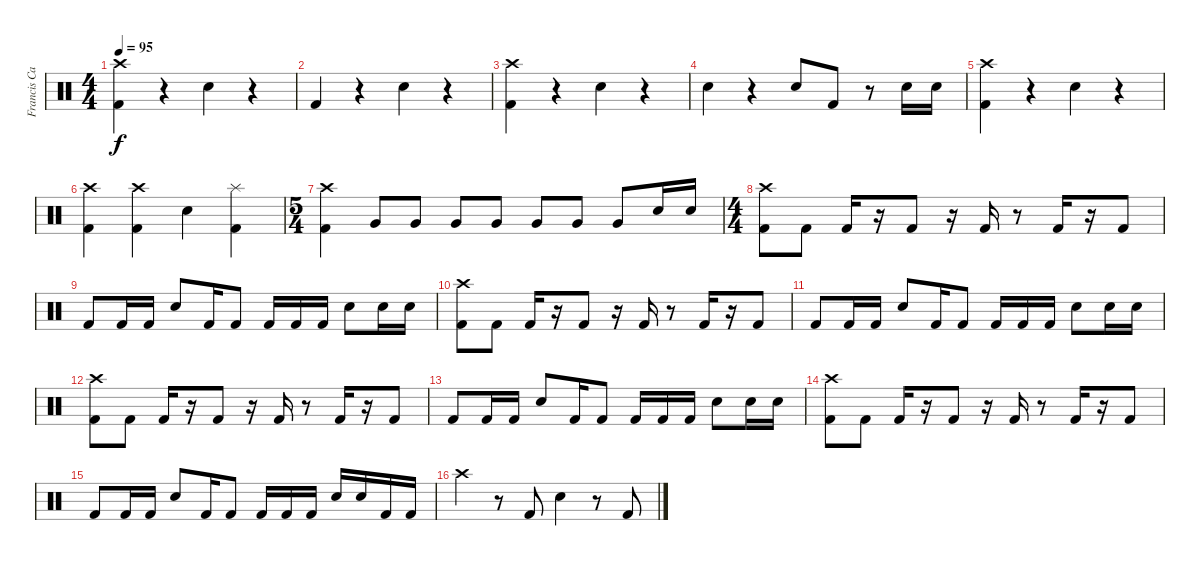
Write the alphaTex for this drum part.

\track ("Francis Cassol" "Francis Ca") {instrument percussion}
\staff {score}
\articulation defaults
\ts (4 4)
\tempo 95
\clef neutral
\ks c
("Crash high (hit)" "Kick (hit) 2").4{dy f} r.4 "Electric Snare (hit)".4 r.4 |
"Kick (hit) 2".4 r.4 "Electric Snare (hit)".4 r.4 |
("Crash high (hit)" "Kick (hit) 2").4 r.4 "Electric Snare (hit)".4 r.4 |
"Electric Snare (hit)".4 r.4 "Electric Snare (hit)".8 "Kick (hit) 2".8 r.8 "Electric Snare (hit)".16 "Electric Snare (hit)".16 |
("Crash high (hit)" "Kick (hit) 2").4 r.4 "Electric Snare (hit)".4 r.4 |
("Crash high (hit)" "Kick (hit) 2").4 ("Crash high (hit)" "Kick (hit) 2").4 "Electric Snare (hit)".4 ("Splash (hit)" "Kick (hit) 2").4 |
\ts (5 4)
("Crash high (hit)" "Kick (hit) 2").4 "Very Low Tom (hit)".8 "Very Low Tom (hit)".8 "Very Low Tom (hit)".8 "Very Low Tom (hit)".8 "Very Low Tom (hit)".8 "Very Low Tom (hit)".8 "Very Low Tom (hit)".8 "Electric Snare (hit)".16 "Electric Snare (hit)".16 |
\ts (4 4)
("Crash high (hit)" "Kick (hit) 2").8 "Kick (hit) 2".8 "Kick (hit) 2".16 r.16 "Kick (hit) 2".8 r.16 "Kick (hit) 2".16 r.8 "Kick (hit) 2".16 r.16 "Kick (hit) 2".8 |
"Kick (hit) 2".8 "Kick (hit) 2".16 "Kick (hit) 2".16 "Electric Snare (hit)".8 "Kick (hit) 2".16 "Kick (hit) 2".8 "Kick (hit) 2".16 "Kick (hit) 2".16 "Kick (hit) 2".16 "Electric Snare (hit)".8 "Electric Snare (hit)".16 "Electric Snare (hit)".16 |
("Crash high (hit)" "Kick (hit) 2").8 "Kick (hit) 2".8 "Kick (hit) 2".16 r.16 "Kick (hit) 2".8 r.16 "Kick (hit) 2".16 r.8 "Kick (hit) 2".16 r.16 "Kick (hit) 2".8 |
"Kick (hit) 2".8 "Kick (hit) 2".16 "Kick (hit) 2".16 "Electric Snare (hit)".8 "Kick (hit) 2".16 "Kick (hit) 2".8 "Kick (hit) 2".16 "Kick (hit) 2".16 "Kick (hit) 2".16 "Electric Snare (hit)".8 "Electric Snare (hit)".16 "Electric Snare (hit)".16 |
("Crash high (hit)" "Kick (hit) 2").8 "Kick (hit) 2".8 "Kick (hit) 2".16 r.16 "Kick (hit) 2".8 r.16 "Kick (hit) 2".16 r.8 "Kick (hit) 2".16 r.16 "Kick (hit) 2".8 |
"Kick (hit) 2".8 "Kick (hit) 2".16 "Kick (hit) 2".16 "Electric Snare (hit)".8 "Kick (hit) 2".16 "Kick (hit) 2".8 "Kick (hit) 2".16 "Kick (hit) 2".16 "Kick (hit) 2".16 "Electric Snare (hit)".8 "Electric Snare (hit)".16 "Electric Snare (hit)".16 |
("Crash high (hit)" "Kick (hit) 2").8 "Kick (hit) 2".8 "Kick (hit) 2".16 r.16 "Kick (hit) 2".8 r.16 "Kick (hit) 2".16 r.8 "Kick (hit) 2".16 r.16 "Kick (hit) 2".8 |
"Kick (hit) 2".8 "Kick (hit) 2".16 "Kick (hit) 2".16 "Electric Snare (hit)".8 "Kick (hit) 2".16 "Kick (hit) 2".8 "Kick (hit) 2".16 "Kick (hit) 2".16 "Kick (hit) 2".16 "Electric Snare (hit)".16 "Electric Snare (hit)".16 "Kick (hit) 2".16 "Kick (hit) 2".16 |
"Crash high (hit)".4 r.8 "Kick (hit) 2".8 "Electric Snare (hit)".4 r.8 "Kick (hit) 2".8
